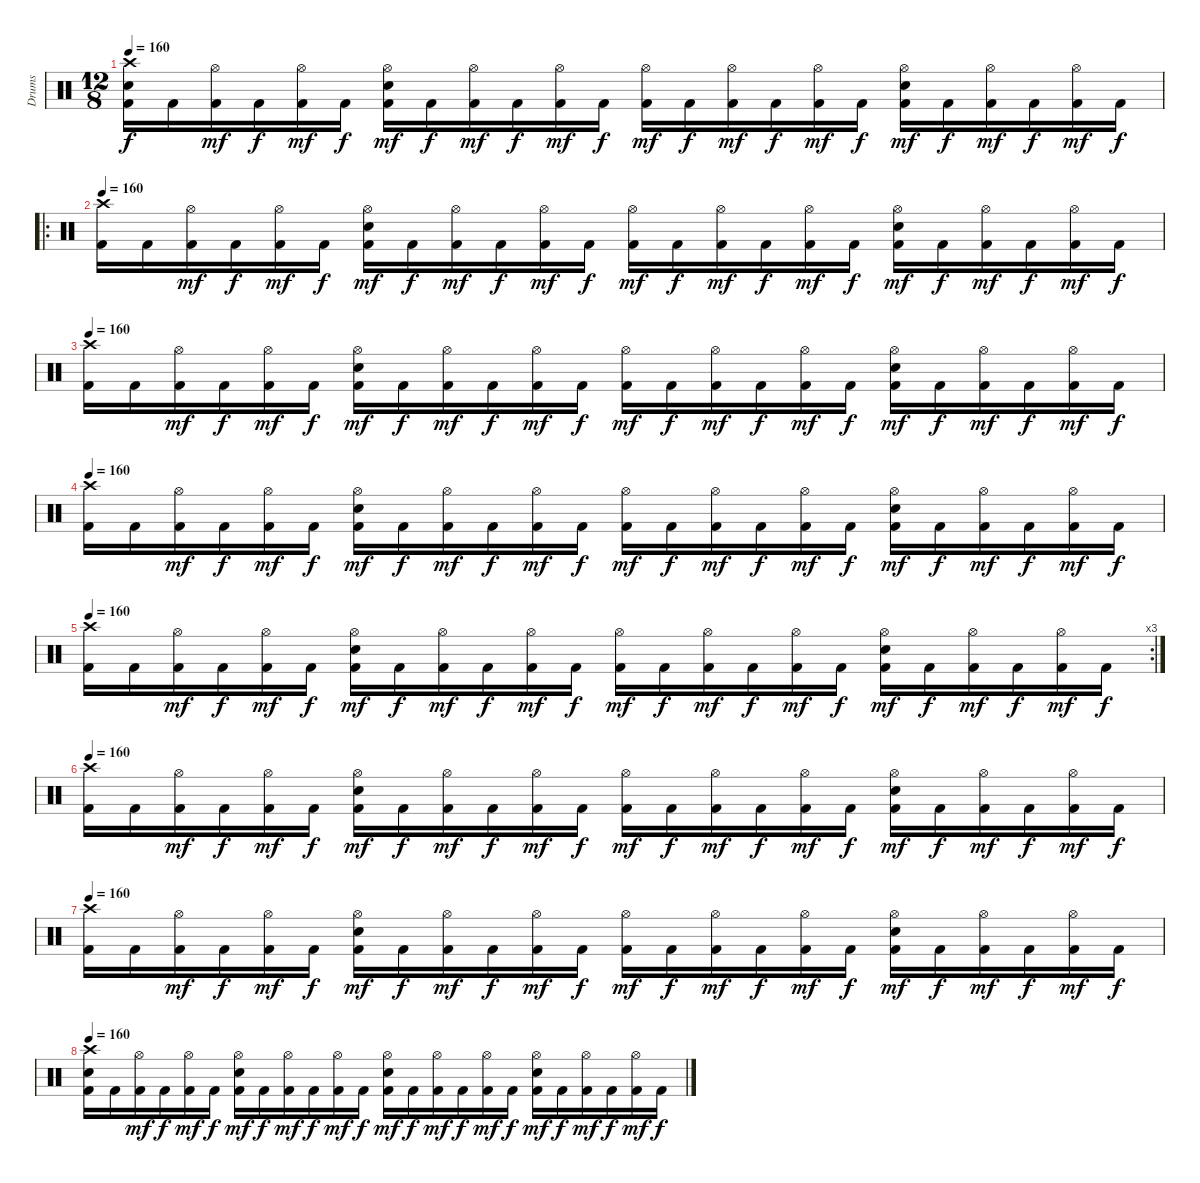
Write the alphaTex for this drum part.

\track ("Drums" "Drums") {instrument percussion}
\staff {score}
\articulation defaults
\ts (12 8)
\tempo 160
\clef neutral
\ks c
("Crash high (hit)" "Electric Snare (hit)" "Kick (hit) 2").16{dy f} "Kick (hit) 2".16 ("Hi-Hat (open)" "Kick (hit) 2").16{dy mf} "Kick (hit) 2".16{dy f} ("Hi-Hat (open)" "Kick (hit) 2").16{dy mf} "Kick (hit) 2".16{dy f} ("Hi-Hat (open)" "Electric Snare (hit)" "Kick (hit) 2").16{dy mf} "Kick (hit) 2".16{dy f} ("Hi-Hat (open)" "Kick (hit) 2").16{dy mf} "Kick (hit) 2".16{dy f} ("Hi-Hat (open)" "Kick (hit) 2").16{dy mf} "Kick (hit) 2".16{dy f} ("Hi-Hat (open)" "Kick (hit) 2").16{dy mf} "Kick (hit) 2".16{dy f} ("Hi-Hat (open)" "Kick (hit) 2").16{dy mf} "Kick (hit) 2".16{dy f} ("Hi-Hat (open)" "Kick (hit) 2").16{dy mf} "Kick (hit) 2".16{dy f} ("Hi-Hat (open)" "Electric Snare (hit)" "Kick (hit) 2").16{dy mf} "Kick (hit) 2".16{dy f} ("Hi-Hat (open)" "Kick (hit) 2").16{dy mf} "Kick (hit) 2".16{dy f} ("Hi-Hat (open)" "Kick (hit) 2").16{dy mf} "Kick (hit) 2".16{dy f} |
\ro
\tempo 160
("Crash high (hit)" "Kick (hit) 2").16 "Kick (hit) 2".16 ("Hi-Hat (open)" "Kick (hit) 2").16{dy mf} "Kick (hit) 2".16{dy f} ("Hi-Hat (open)" "Kick (hit) 2").16{dy mf} "Kick (hit) 2".16{dy f} ("Hi-Hat (open)" "Electric Snare (hit)" "Kick (hit) 2").16{dy mf} "Kick (hit) 2".16{dy f} ("Hi-Hat (open)" "Kick (hit) 2").16{dy mf} "Kick (hit) 2".16{dy f} ("Hi-Hat (open)" "Kick (hit) 2").16{dy mf} "Kick (hit) 2".16{dy f} ("Hi-Hat (open)" "Kick (hit) 2").16{dy mf} "Kick (hit) 2".16{dy f} ("Hi-Hat (open)" "Kick (hit) 2").16{dy mf} "Kick (hit) 2".16{dy f} ("Hi-Hat (open)" "Kick (hit) 2").16{dy mf} "Kick (hit) 2".16{dy f} ("Hi-Hat (open)" "Electric Snare (hit)" "Kick (hit) 2").16{dy mf} "Kick (hit) 2".16{dy f} ("Hi-Hat (open)" "Kick (hit) 2").16{dy mf} "Kick (hit) 2".16{dy f} ("Hi-Hat (open)" "Kick (hit) 2").16{dy mf} "Kick (hit) 2".16{dy f} |
\tempo 160
("Crash high (hit)" "Kick (hit) 2").16 "Kick (hit) 2".16 ("Hi-Hat (open)" "Kick (hit) 2").16{dy mf} "Kick (hit) 2".16{dy f} ("Hi-Hat (open)" "Kick (hit) 2").16{dy mf} "Kick (hit) 2".16{dy f} ("Hi-Hat (open)" "Electric Snare (hit)" "Kick (hit) 2").16{dy mf} "Kick (hit) 2".16{dy f} ("Hi-Hat (open)" "Kick (hit) 2").16{dy mf} "Kick (hit) 2".16{dy f} ("Hi-Hat (open)" "Kick (hit) 2").16{dy mf} "Kick (hit) 2".16{dy f} ("Hi-Hat (open)" "Kick (hit) 2").16{dy mf} "Kick (hit) 2".16{dy f} ("Hi-Hat (open)" "Kick (hit) 2").16{dy mf} "Kick (hit) 2".16{dy f} ("Hi-Hat (open)" "Kick (hit) 2").16{dy mf} "Kick (hit) 2".16{dy f} ("Hi-Hat (open)" "Electric Snare (hit)" "Kick (hit) 2").16{dy mf} "Kick (hit) 2".16{dy f} ("Hi-Hat (open)" "Kick (hit) 2").16{dy mf} "Kick (hit) 2".16{dy f} ("Hi-Hat (open)" "Kick (hit) 2").16{dy mf} "Kick (hit) 2".16{dy f} |
\tempo 160
("Crash high (hit)" "Kick (hit) 2").16 "Kick (hit) 2".16 ("Hi-Hat (open)" "Kick (hit) 2").16{dy mf} "Kick (hit) 2".16{dy f} ("Hi-Hat (open)" "Kick (hit) 2").16{dy mf} "Kick (hit) 2".16{dy f} ("Hi-Hat (open)" "Electric Snare (hit)" "Kick (hit) 2").16{dy mf} "Kick (hit) 2".16{dy f} ("Hi-Hat (open)" "Kick (hit) 2").16{dy mf} "Kick (hit) 2".16{dy f} ("Hi-Hat (open)" "Kick (hit) 2").16{dy mf} "Kick (hit) 2".16{dy f} ("Hi-Hat (open)" "Kick (hit) 2").16{dy mf} "Kick (hit) 2".16{dy f} ("Hi-Hat (open)" "Kick (hit) 2").16{dy mf} "Kick (hit) 2".16{dy f} ("Hi-Hat (open)" "Kick (hit) 2").16{dy mf} "Kick (hit) 2".16{dy f} ("Hi-Hat (open)" "Electric Snare (hit)" "Kick (hit) 2").16{dy mf} "Kick (hit) 2".16{dy f} ("Hi-Hat (open)" "Kick (hit) 2").16{dy mf} "Kick (hit) 2".16{dy f} ("Hi-Hat (open)" "Kick (hit) 2").16{dy mf} "Kick (hit) 2".16{dy f} |
\rc 3
\tempo 160
("Crash high (hit)" "Kick (hit) 2").16 "Kick (hit) 2".16 ("Hi-Hat (open)" "Kick (hit) 2").16{dy mf} "Kick (hit) 2".16{dy f} ("Hi-Hat (open)" "Kick (hit) 2").16{dy mf} "Kick (hit) 2".16{dy f} ("Hi-Hat (open)" "Electric Snare (hit)" "Kick (hit) 2").16{dy mf} "Kick (hit) 2".16{dy f} ("Hi-Hat (open)" "Kick (hit) 2").16{dy mf} "Kick (hit) 2".16{dy f} ("Hi-Hat (open)" "Kick (hit) 2").16{dy mf} "Kick (hit) 2".16{dy f} ("Hi-Hat (open)" "Kick (hit) 2").16{dy mf} "Kick (hit) 2".16{dy f} ("Hi-Hat (open)" "Kick (hit) 2").16{dy mf} "Kick (hit) 2".16{dy f} ("Hi-Hat (open)" "Kick (hit) 2").16{dy mf} "Kick (hit) 2".16{dy f} ("Hi-Hat (open)" "Electric Snare (hit)" "Kick (hit) 2").16{dy mf} "Kick (hit) 2".16{dy f} ("Hi-Hat (open)" "Kick (hit) 2").16{dy mf} "Kick (hit) 2".16{dy f} ("Hi-Hat (open)" "Kick (hit) 2").16{dy mf} "Kick (hit) 2".16{dy f} |
\tempo 160
("Crash high (hit)" "Kick (hit) 2").16 "Kick (hit) 2".16 ("Hi-Hat (open)" "Kick (hit) 2").16{dy mf} "Kick (hit) 2".16{dy f} ("Hi-Hat (open)" "Kick (hit) 2").16{dy mf} "Kick (hit) 2".16{dy f} ("Hi-Hat (open)" "Electric Snare (hit)" "Kick (hit) 2").16{dy mf} "Kick (hit) 2".16{dy f} ("Hi-Hat (open)" "Kick (hit) 2").16{dy mf} "Kick (hit) 2".16{dy f} ("Hi-Hat (open)" "Kick (hit) 2").16{dy mf} "Kick (hit) 2".16{dy f} ("Hi-Hat (open)" "Kick (hit) 2").16{dy mf} "Kick (hit) 2".16{dy f} ("Hi-Hat (open)" "Kick (hit) 2").16{dy mf} "Kick (hit) 2".16{dy f} ("Hi-Hat (open)" "Kick (hit) 2").16{dy mf} "Kick (hit) 2".16{dy f} ("Hi-Hat (open)" "Electric Snare (hit)" "Kick (hit) 2").16{dy mf} "Kick (hit) 2".16{dy f} ("Hi-Hat (open)" "Kick (hit) 2").16{dy mf} "Kick (hit) 2".16{dy f} ("Hi-Hat (open)" "Kick (hit) 2").16{dy mf} "Kick (hit) 2".16{dy f} |
\tempo 160
("Crash high (hit)" "Kick (hit) 2").16 "Kick (hit) 2".16 ("Hi-Hat (open)" "Kick (hit) 2").16{dy mf} "Kick (hit) 2".16{dy f} ("Hi-Hat (open)" "Kick (hit) 2").16{dy mf} "Kick (hit) 2".16{dy f} ("Hi-Hat (open)" "Electric Snare (hit)" "Kick (hit) 2").16{dy mf} "Kick (hit) 2".16{dy f} ("Hi-Hat (open)" "Kick (hit) 2").16{dy mf} "Kick (hit) 2".16{dy f} ("Hi-Hat (open)" "Kick (hit) 2").16{dy mf} "Kick (hit) 2".16{dy f} ("Hi-Hat (open)" "Kick (hit) 2").16{dy mf} "Kick (hit) 2".16{dy f} ("Hi-Hat (open)" "Kick (hit) 2").16{dy mf} "Kick (hit) 2".16{dy f} ("Hi-Hat (open)" "Kick (hit) 2").16{dy mf} "Kick (hit) 2".16{dy f} ("Hi-Hat (open)" "Electric Snare (hit)" "Kick (hit) 2").16{dy mf} "Kick (hit) 2".16{dy f} ("Hi-Hat (open)" "Kick (hit) 2").16{dy mf} "Kick (hit) 2".16{dy f} ("Hi-Hat (open)" "Kick (hit) 2").16{dy mf} "Kick (hit) 2".16{dy f} |
\tempo 160
("Crash high (hit)" "Electric Snare (hit)" "Kick (hit) 2").16 "Kick (hit) 2".16 ("Hi-Hat (open)" "Kick (hit) 2").16{dy mf} "Kick (hit) 2".16{dy f} ("Hi-Hat (open)" "Kick (hit) 2").16{dy mf} "Kick (hit) 2".16{dy f} ("Hi-Hat (open)" "Electric Snare (hit)" "Kick (hit) 2").16{dy mf} "Kick (hit) 2".16{dy f} ("Hi-Hat (open)" "Kick (hit) 2").16{dy mf} "Kick (hit) 2".16{dy f} ("Hi-Hat (open)" "Kick (hit) 2").16{dy mf} "Kick (hit) 2".16{dy f} ("Hi-Hat (open)" "Electric Snare (hit)" "Kick (hit) 2").16{dy mf} "Kick (hit) 2".16{dy f} ("Hi-Hat (open)" "Kick (hit) 2").16{dy mf} "Kick (hit) 2".16{dy f} ("Hi-Hat (open)" "Kick (hit) 2").16{dy mf} "Kick (hit) 2".16{dy f} ("Hi-Hat (open)" "Electric Snare (hit)" "Kick (hit) 2").16{dy mf} "Kick (hit) 2".16{dy f} ("Hi-Hat (open)" "Kick (hit) 2").16{dy mf} "Kick (hit) 2".16{dy f} ("Hi-Hat (open)" "Kick (hit) 2").16{dy mf} "Kick (hit) 2".16{dy f}
